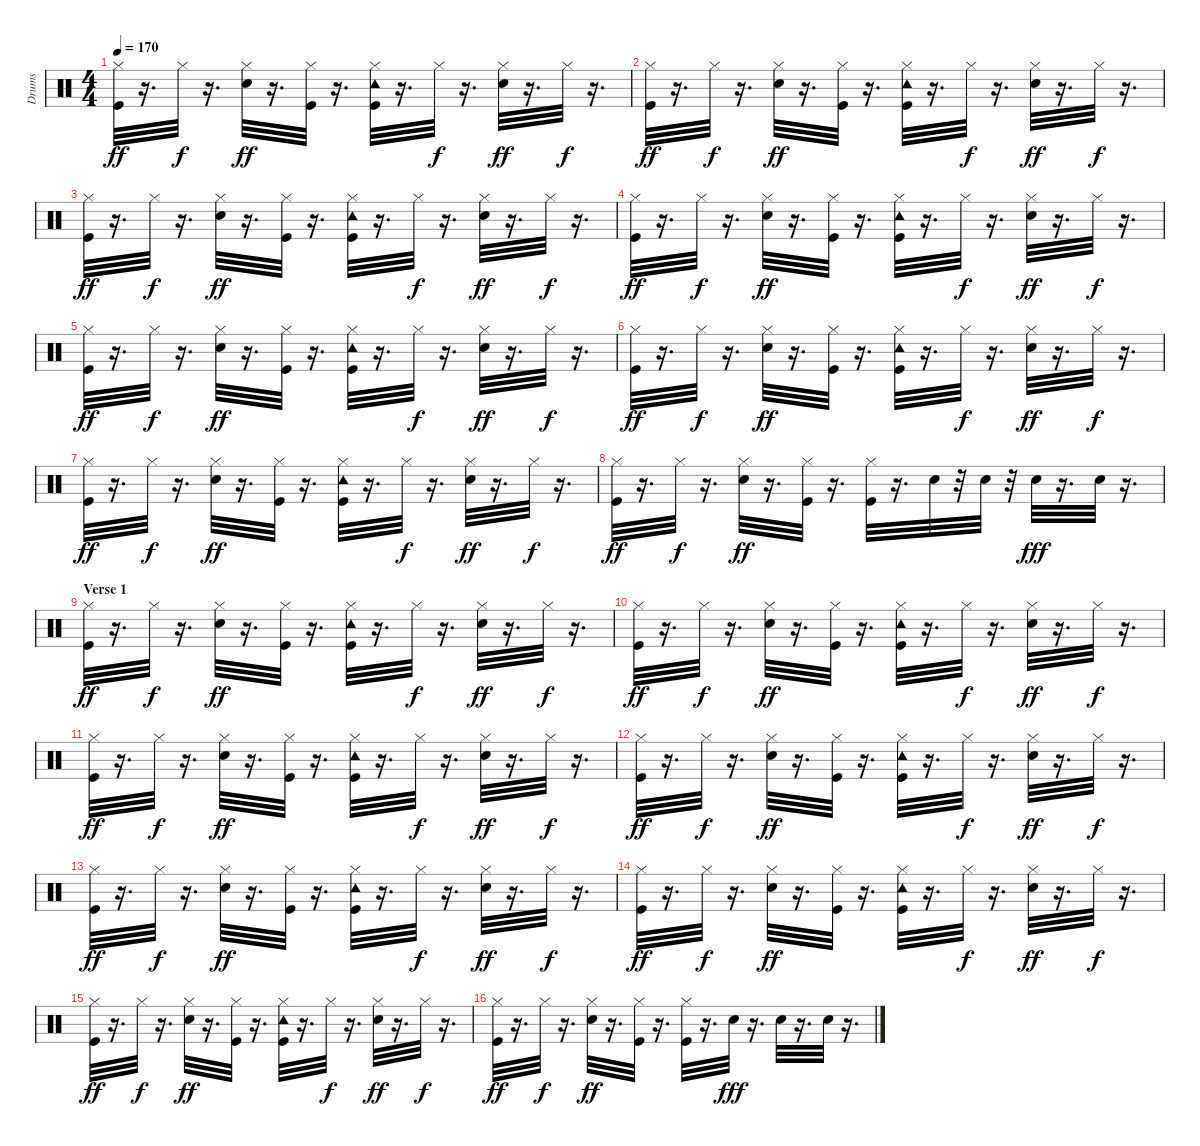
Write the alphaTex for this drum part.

\track ("Drums" "Drums") {instrument percussion}
\staff {score}
\articulation defaults
\ts (4 4)
\tempo 170
\clef neutral
\ks c
("Kick (hit)" "Hi-Hat (closed)").32{dy ff} r.16{d} "Hi-Hat (closed)".32{dy f} r.16{d} ("Snare (hit) 2" "Hi-Hat (closed)").32{dy ff} r.16{d} ("Hi-Hat (closed)" "Kick (hit)").32 r.16{d} ("Kick (hit)" "Tambourine (hit)" "Hi-Hat (closed)").32 r.16{d} "Hi-Hat (closed)".32{dy f} r.16{d} ("Snare (hit) 2" "Hi-Hat (closed)").32{dy ff} r.16{d} "Hi-Hat (closed)".32{dy f} r.16{d} |
("Kick (hit)" "Hi-Hat (closed)").32{dy ff} r.16{d} "Hi-Hat (closed)".32{dy f} r.16{d} ("Snare (hit) 2" "Hi-Hat (closed)").32{dy ff} r.16{d} ("Hi-Hat (closed)" "Kick (hit)").32 r.16{d} ("Kick (hit)" "Tambourine (hit)" "Hi-Hat (closed)").32 r.16{d} "Hi-Hat (closed)".32{dy f} r.16{d} ("Snare (hit) 2" "Hi-Hat (closed)").32{dy ff} r.16{d} "Hi-Hat (closed)".32{dy f} r.16{d} |
("Kick (hit)" "Hi-Hat (closed)").32{dy ff} r.16{d} "Hi-Hat (closed)".32{dy f} r.16{d} ("Snare (hit) 2" "Hi-Hat (closed)").32{dy ff} r.16{d} ("Hi-Hat (closed)" "Kick (hit)").32 r.16{d} ("Kick (hit)" "Tambourine (hit)" "Hi-Hat (closed)").32 r.16{d} "Hi-Hat (closed)".32{dy f} r.16{d} ("Snare (hit) 2" "Hi-Hat (closed)").32{dy ff} r.16{d} "Hi-Hat (closed)".32{dy f} r.16{d} |
("Kick (hit)" "Hi-Hat (closed)").32{dy ff} r.16{d} "Hi-Hat (closed)".32{dy f} r.16{d} ("Snare (hit) 2" "Hi-Hat (closed)").32{dy ff} r.16{d} ("Hi-Hat (closed)" "Kick (hit)").32 r.16{d} ("Kick (hit)" "Tambourine (hit)" "Hi-Hat (closed)").32 r.16{d} "Hi-Hat (closed)".32{dy f} r.16{d} ("Snare (hit) 2" "Hi-Hat (closed)").32{dy ff} r.16{d} "Hi-Hat (closed)".32{dy f} r.16{d} |
("Kick (hit)" "Hi-Hat (closed)").32{dy ff} r.16{d} "Hi-Hat (closed)".32{dy f} r.16{d} ("Snare (hit) 2" "Hi-Hat (closed)").32{dy ff} r.16{d} ("Hi-Hat (closed)" "Kick (hit)").32 r.16{d} ("Kick (hit)" "Tambourine (hit)" "Hi-Hat (closed)").32 r.16{d} "Hi-Hat (closed)".32{dy f} r.16{d} ("Snare (hit) 2" "Hi-Hat (closed)").32{dy ff} r.16{d} "Hi-Hat (closed)".32{dy f} r.16{d} |
("Kick (hit)" "Hi-Hat (closed)").32{dy ff} r.16{d} "Hi-Hat (closed)".32{dy f} r.16{d} ("Snare (hit) 2" "Hi-Hat (closed)").32{dy ff} r.16{d} ("Hi-Hat (closed)" "Kick (hit)").32 r.16{d} ("Kick (hit)" "Tambourine (hit)" "Hi-Hat (closed)").32 r.16{d} "Hi-Hat (closed)".32{dy f} r.16{d} ("Snare (hit) 2" "Hi-Hat (closed)").32{dy ff} r.16{d} "Hi-Hat (closed)".32{dy f} r.16{d} |
("Kick (hit)" "Hi-Hat (closed)").32{dy ff} r.16{d} "Hi-Hat (closed)".32{dy f} r.16{d} ("Snare (hit) 2" "Hi-Hat (closed)").32{dy ff} r.16{d} ("Hi-Hat (closed)" "Kick (hit)").32 r.16{d} ("Kick (hit)" "Tambourine (hit)" "Hi-Hat (closed)").32 r.16{d} "Hi-Hat (closed)".32{dy f} r.16{d} ("Snare (hit) 2" "Hi-Hat (closed)").32{dy ff} r.16{d} "Hi-Hat (closed)".32{dy f} r.16{d} |
("Kick (hit)" "Hi-Hat (closed)").32{dy ff} r.16{d} "Hi-Hat (closed)".32{dy f} r.16{d} ("Snare (hit) 2" "Hi-Hat (closed)").32{dy ff} r.16{d} ("Hi-Hat (closed)" "Kick (hit)").32 r.16{d} ("Kick (hit)" "Hi-Hat (closed)").32 r.16{d} "Snare (hit) 2".32 r.32 "Snare (hit) 2".32 r.32 "Snare (hit) 2".32{dy fff} r.16{d} "Snare (hit) 2".32 r.16{d} |
\section ("" "Verse 1")
("Kick (hit)" "Hi-Hat (closed)").32{dy ff} r.16{d} "Hi-Hat (closed)".32{dy f} r.16{d} ("Snare (hit) 2" "Hi-Hat (closed)").32{dy ff} r.16{d} ("Hi-Hat (closed)" "Kick (hit)").32 r.16{d} ("Kick (hit)" "Tambourine (hit)" "Hi-Hat (closed)").32 r.16{d} "Hi-Hat (closed)".32{dy f} r.16{d} ("Snare (hit) 2" "Hi-Hat (closed)").32{dy ff} r.16{d} "Hi-Hat (closed)".32{dy f} r.16{d} |
("Kick (hit)" "Hi-Hat (closed)").32{dy ff} r.16{d} "Hi-Hat (closed)".32{dy f} r.16{d} ("Snare (hit) 2" "Hi-Hat (closed)").32{dy ff} r.16{d} ("Hi-Hat (closed)" "Kick (hit)").32 r.16{d} ("Kick (hit)" "Tambourine (hit)" "Hi-Hat (closed)").32 r.16{d} "Hi-Hat (closed)".32{dy f} r.16{d} ("Snare (hit) 2" "Hi-Hat (closed)").32{dy ff} r.16{d} "Hi-Hat (closed)".32{dy f} r.16{d} |
("Kick (hit)" "Hi-Hat (closed)").32{dy ff} r.16{d} "Hi-Hat (closed)".32{dy f} r.16{d} ("Snare (hit) 2" "Hi-Hat (closed)").32{dy ff} r.16{d} ("Hi-Hat (closed)" "Kick (hit)").32 r.16{d} ("Kick (hit)" "Tambourine (hit)" "Hi-Hat (closed)").32 r.16{d} "Hi-Hat (closed)".32{dy f} r.16{d} ("Snare (hit) 2" "Hi-Hat (closed)").32{dy ff} r.16{d} "Hi-Hat (closed)".32{dy f} r.16{d} |
("Kick (hit)" "Hi-Hat (closed)").32{dy ff} r.16{d} "Hi-Hat (closed)".32{dy f} r.16{d} ("Snare (hit) 2" "Hi-Hat (closed)").32{dy ff} r.16{d} ("Hi-Hat (closed)" "Kick (hit)").32 r.16{d} ("Kick (hit)" "Tambourine (hit)" "Hi-Hat (closed)").32 r.16{d} "Hi-Hat (closed)".32{dy f} r.16{d} ("Snare (hit) 2" "Hi-Hat (closed)").32{dy ff} r.16{d} "Hi-Hat (closed)".32{dy f} r.16{d} |
("Kick (hit)" "Hi-Hat (closed)").32{dy ff} r.16{d} "Hi-Hat (closed)".32{dy f} r.16{d} ("Snare (hit) 2" "Hi-Hat (closed)").32{dy ff} r.16{d} ("Hi-Hat (closed)" "Kick (hit)").32 r.16{d} ("Kick (hit)" "Tambourine (hit)" "Hi-Hat (closed)").32 r.16{d} "Hi-Hat (closed)".32{dy f} r.16{d} ("Snare (hit) 2" "Hi-Hat (closed)").32{dy ff} r.16{d} "Hi-Hat (closed)".32{dy f} r.16{d} |
("Kick (hit)" "Hi-Hat (closed)").32{dy ff} r.16{d} "Hi-Hat (closed)".32{dy f} r.16{d} ("Snare (hit) 2" "Hi-Hat (closed)").32{dy ff} r.16{d} ("Hi-Hat (closed)" "Kick (hit)").32 r.16{d} ("Kick (hit)" "Tambourine (hit)" "Hi-Hat (closed)").32 r.16{d} "Hi-Hat (closed)".32{dy f} r.16{d} ("Snare (hit) 2" "Hi-Hat (closed)").32{dy ff} r.16{d} "Hi-Hat (closed)".32{dy f} r.16{d} |
("Kick (hit)" "Hi-Hat (closed)").32{dy ff} r.16{d} "Hi-Hat (closed)".32{dy f} r.16{d} ("Snare (hit) 2" "Hi-Hat (closed)").32{dy ff} r.16{d} ("Hi-Hat (closed)" "Kick (hit)").32 r.16{d} ("Kick (hit)" "Tambourine (hit)" "Hi-Hat (closed)").32 r.16{d} "Hi-Hat (closed)".32{dy f} r.16{d} ("Snare (hit) 2" "Hi-Hat (closed)").32{dy ff} r.16{d} "Hi-Hat (closed)".32{dy f} r.16{d} |
("Kick (hit)" "Hi-Hat (closed)").32{dy ff} r.16{d} "Hi-Hat (closed)".32{dy f} r.16{d} ("Snare (hit) 2" "Hi-Hat (closed)").32{dy ff} r.16{d} ("Hi-Hat (closed)" "Kick (hit)").32 r.16{d} ("Kick (hit)" "Hi-Hat (closed)").32 r.16{d} "Snare (hit) 2".32{dy fff} r.16{d} "Snare (hit) 2".32 r.16{d} "Snare (hit) 2".32 r.16{d}
